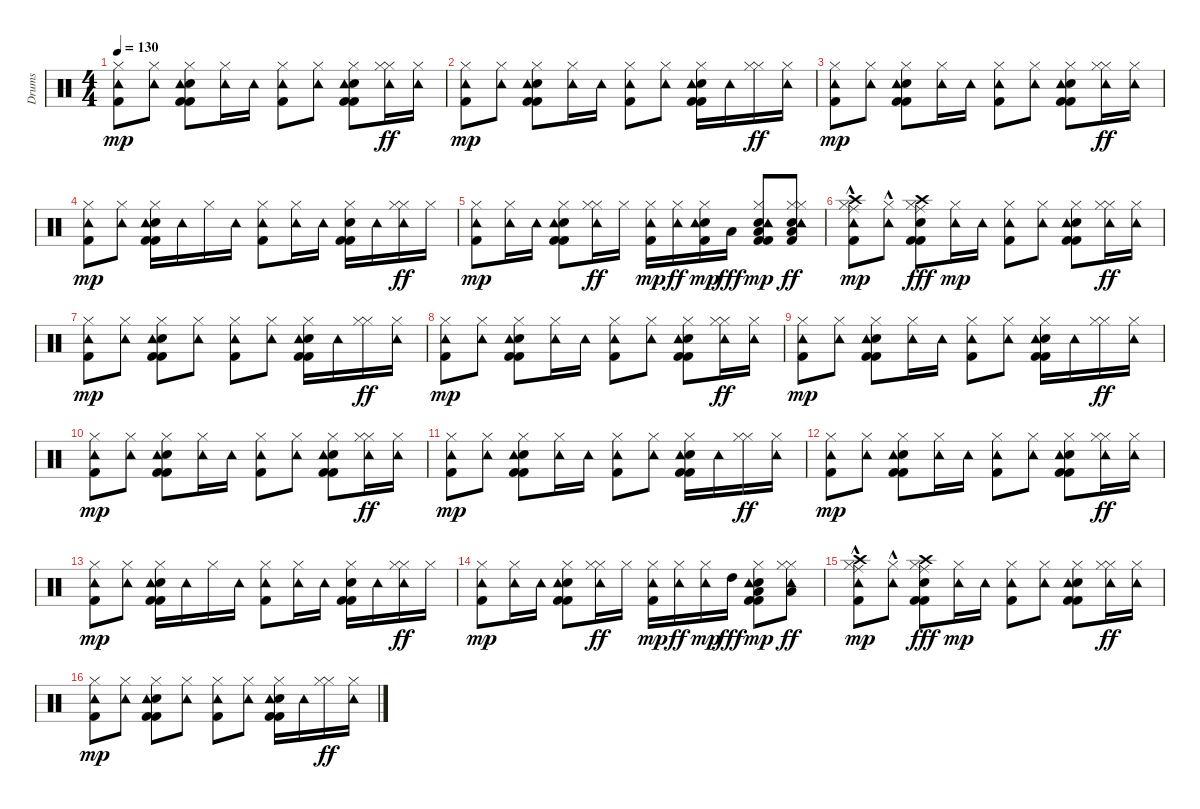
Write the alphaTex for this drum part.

\track ("Drums" "Drums") {instrument percussion}
\staff {score}
\articulation defaults
\ts (4 4)
\tempo 130
\clef neutral
\ks c
("Kick (hit) 2" "Hi-Hat (closed)" "Tambourine (hit)").8{dy mp} ("Hi-Hat (closed)" "Tambourine (hit)").8 ("Kick (hit) 2" "Snare (hit) 2" "Kick (hit) 2" "Hi-Hat (closed)" "Tambourine (hit)").8 ("Hi-Hat (closed)" "Tambourine (hit)").16 "Tambourine (hit)".16 ("Kick (hit) 2" "Hi-Hat (closed)" "Tambourine (hit)").8 ("Hi-Hat (closed)" "Tambourine (hit)").8 ("Kick (hit) 2" "Snare (hit) 2" "Kick (hit) 2" "Hi-Hat (closed)" "Tambourine (hit)").8 ("Hi-Hat (closed)" "Tambourine (hit)" "Hi-Hat (closed)").16{dy ff} ("Tambourine (hit)" "Hi-Hat (closed)").16 |
("Kick (hit) 2" "Hi-Hat (closed)" "Tambourine (hit)").8{dy mp} ("Hi-Hat (closed)" "Tambourine (hit)").8 ("Kick (hit) 2" "Snare (hit) 2" "Kick (hit) 2" "Hi-Hat (closed)" "Tambourine (hit)").8 ("Hi-Hat (closed)" "Tambourine (hit)").16 "Tambourine (hit)".16 ("Kick (hit) 2" "Hi-Hat (closed)" "Tambourine (hit)").8 ("Hi-Hat (closed)" "Tambourine (hit)").8 ("Kick (hit) 2" "Snare (hit) 2" "Kick (hit) 2" "Hi-Hat (closed)" "Tambourine (hit)").16 "Tambourine (hit)".16 ("Hi-Hat (closed)" "Hi-Hat (closed)").16{dy ff} ("Tambourine (hit)" "Hi-Hat (closed)").16 |
("Kick (hit) 2" "Hi-Hat (closed)" "Tambourine (hit)").8{dy mp} ("Hi-Hat (closed)" "Tambourine (hit)").8 ("Kick (hit) 2" "Snare (hit) 2" "Kick (hit) 2" "Hi-Hat (closed)" "Tambourine (hit)").8 ("Hi-Hat (closed)" "Tambourine (hit)").16 "Tambourine (hit)".16 ("Kick (hit) 2" "Hi-Hat (closed)" "Tambourine (hit)").8 ("Hi-Hat (closed)" "Tambourine (hit)").8 ("Kick (hit) 2" "Snare (hit) 2" "Kick (hit) 2" "Hi-Hat (closed)" "Tambourine (hit)").8 ("Hi-Hat (closed)" "Tambourine (hit)" "Hi-Hat (closed)").16{dy ff} ("Tambourine (hit)" "Hi-Hat (closed)").16 |
("Kick (hit) 2" "Hi-Hat (closed)" "Tambourine (hit)").8{dy mp} ("Hi-Hat (closed)" "Tambourine (hit)").8 ("Kick (hit) 2" "Kick (hit) 2" "Snare (hit) 2" "Hi-Hat (closed)" "Tambourine (hit)").16 "Tambourine (hit)".16 "Hi-Hat (closed)".16 "Tambourine (hit)".16 ("Kick (hit) 2" "Hi-Hat (closed)" "Tambourine (hit)").8 ("Hi-Hat (closed)" "Tambourine (hit)").16 "Tambourine (hit)".16 ("Kick (hit) 2" "Snare (hit) 2" "Kick (hit) 2" "Hi-Hat (closed)").16 "Tambourine (hit)".16 ("Hi-Hat (closed)" "Tambourine (hit)" "Hi-Hat (closed)").16{dy ff} "Hi-Hat (closed)".16 |
("Kick (hit) 2" "Hi-Hat (closed)" "Tambourine (hit)").8{dy mp} ("Hi-Hat (closed)" "Tambourine (hit)").16 "Tambourine (hit)".16 ("Kick (hit) 2" "Snare (hit) 2" "Kick (hit) 2" "Hi-Hat (closed)" "Tambourine (hit)").8 ("Hi-Hat (closed)" "Tambourine (hit)" "Hi-Hat (closed)").16{dy ff} "Hi-Hat (closed)".16 ("Kick (hit) 2" "Hi-Hat (closed)" "Tambourine (hit)").16{dy mp} ("Tambourine (hit)" "Hi-Hat (closed)").16{dy ff} ("Snare (hit) 2" "Kick (hit) 2" "Hi-Hat (closed)" "Tambourine (hit)").16{dy mp} "Low Floor Tom (hit)".16{dy fff} ("Kick (hit) 2" "Kick (hit) 2" "Snare (hit) 2" "Hi-Hat (closed)" "Low Tom (hit)" "Tambourine (hit)").8{dy mp} ("Kick (hit) 2" "Snare (hit) 2" "Hi-Hat (closed)" "Low Floor Tom (hit)" "Tambourine (hit)" "Hi-Hat (closed)").8{dy ff} |
("Kick (hit) 2" "Hi-Hat (closed)" "Ride (middle)"{hac} "Crash high (hit)"{hac} "Tambourine (hit)").8{dy mp} ("Hi-Hat (closed)" "Tambourine (hit)"{hac}).8 ("Kick (hit) 2" "Snare (hit) 2" "Kick (hit) 2" "Hi-Hat (closed)" "Ride (middle)" "Crash high (hit)").8{dy fff} ("Hi-Hat (closed)" "Tambourine (hit)").16{dy mp} "Tambourine (hit)".16 ("Kick (hit) 2" "Hi-Hat (closed)" "Tambourine (hit)").8 ("Hi-Hat (closed)" "Tambourine (hit)").8 ("Kick (hit) 2" "Snare (hit) 2" "Kick (hit) 2" "Hi-Hat (closed)" "Tambourine (hit)").8 ("Hi-Hat (closed)" "Tambourine (hit)" "Hi-Hat (closed)").16{dy ff} ("Tambourine (hit)" "Hi-Hat (closed)").16 |
("Kick (hit) 2" "Hi-Hat (closed)" "Tambourine (hit)").8{dy mp} ("Hi-Hat (closed)" "Tambourine (hit)").8 ("Kick (hit) 2" "Snare (hit) 2" "Kick (hit) 2" "Hi-Hat (closed)" "Tambourine (hit)").8 ("Hi-Hat (closed)" "Tambourine (hit)").8 ("Kick (hit) 2" "Hi-Hat (closed)" "Tambourine (hit)").8 ("Hi-Hat (closed)" "Tambourine (hit)").8 ("Kick (hit) 2" "Snare (hit) 2" "Kick (hit) 2" "Hi-Hat (closed)" "Tambourine (hit)").16 "Tambourine (hit)".16 ("Hi-Hat (closed)" "Hi-Hat (closed)").16{dy ff} ("Tambourine (hit)" "Hi-Hat (closed)").16 |
("Kick (hit) 2" "Hi-Hat (closed)" "Tambourine (hit)").8{dy mp} ("Hi-Hat (closed)" "Tambourine (hit)").8 ("Kick (hit) 2" "Snare (hit) 2" "Kick (hit) 2" "Hi-Hat (closed)" "Tambourine (hit)").8 ("Hi-Hat (closed)" "Tambourine (hit)").16 "Tambourine (hit)".16 ("Kick (hit) 2" "Hi-Hat (closed)" "Tambourine (hit)").8 ("Hi-Hat (closed)" "Tambourine (hit)").8 ("Kick (hit) 2" "Snare (hit) 2" "Kick (hit) 2" "Hi-Hat (closed)" "Tambourine (hit)").8 ("Hi-Hat (closed)" "Tambourine (hit)" "Hi-Hat (closed)").16{dy ff} ("Tambourine (hit)" "Hi-Hat (closed)").16 |
("Kick (hit) 2" "Hi-Hat (closed)" "Tambourine (hit)").8{dy mp} ("Hi-Hat (closed)" "Tambourine (hit)").8 ("Kick (hit) 2" "Snare (hit) 2" "Kick (hit) 2" "Hi-Hat (closed)" "Tambourine (hit)").8 ("Hi-Hat (closed)" "Tambourine (hit)").16 "Tambourine (hit)".16 ("Kick (hit) 2" "Hi-Hat (closed)" "Tambourine (hit)").8 ("Hi-Hat (closed)" "Tambourine (hit)").8 ("Kick (hit) 2" "Snare (hit) 2" "Kick (hit) 2" "Hi-Hat (closed)" "Tambourine (hit)").16 "Tambourine (hit)".16 ("Hi-Hat (closed)" "Hi-Hat (closed)").16{dy ff} ("Tambourine (hit)" "Hi-Hat (closed)").16 |
("Kick (hit) 2" "Hi-Hat (closed)" "Tambourine (hit)").8{dy mp} ("Hi-Hat (closed)" "Tambourine (hit)").8 ("Kick (hit) 2" "Snare (hit) 2" "Kick (hit) 2" "Hi-Hat (closed)" "Tambourine (hit)").8 ("Hi-Hat (closed)" "Tambourine (hit)").16 "Tambourine (hit)".16 ("Kick (hit) 2" "Hi-Hat (closed)" "Tambourine (hit)").8 ("Hi-Hat (closed)" "Tambourine (hit)").8 ("Kick (hit) 2" "Snare (hit) 2" "Kick (hit) 2" "Hi-Hat (closed)" "Tambourine (hit)").8 ("Hi-Hat (closed)" "Tambourine (hit)" "Hi-Hat (closed)").16{dy ff} ("Tambourine (hit)" "Hi-Hat (closed)").16 |
("Kick (hit) 2" "Hi-Hat (closed)" "Tambourine (hit)").8{dy mp} ("Hi-Hat (closed)" "Tambourine (hit)").8 ("Kick (hit) 2" "Snare (hit) 2" "Kick (hit) 2" "Hi-Hat (closed)" "Tambourine (hit)").8 ("Hi-Hat (closed)" "Tambourine (hit)").16 "Tambourine (hit)".16 ("Kick (hit) 2" "Hi-Hat (closed)" "Tambourine (hit)").8 ("Hi-Hat (closed)" "Tambourine (hit)").8 ("Kick (hit) 2" "Snare (hit) 2" "Kick (hit) 2" "Hi-Hat (closed)" "Tambourine (hit)").16 "Tambourine (hit)".16 ("Hi-Hat (closed)" "Hi-Hat (closed)").16{dy ff} ("Tambourine (hit)" "Hi-Hat (closed)").16 |
("Kick (hit) 2" "Hi-Hat (closed)" "Tambourine (hit)").8{dy mp} ("Hi-Hat (closed)" "Tambourine (hit)").8 ("Kick (hit) 2" "Kick (hit) 2" "Snare (hit) 2" "Hi-Hat (closed)" "Tambourine (hit)").8 ("Hi-Hat (closed)" "Tambourine (hit)").16 "Tambourine (hit)".16 ("Kick (hit) 2" "Hi-Hat (closed)" "Tambourine (hit)").8 ("Hi-Hat (closed)" "Tambourine (hit)").8 ("Kick (hit) 2" "Kick (hit) 2" "Snare (hit) 2" "Hi-Hat (closed)" "Tambourine (hit)").8 ("Hi-Hat (closed)" "Tambourine (hit)" "Hi-Hat (closed)").16{dy ff} ("Tambourine (hit)" "Hi-Hat (closed)").16 |
("Kick (hit) 2" "Hi-Hat (closed)" "Tambourine (hit)").8{dy mp} ("Hi-Hat (closed)" "Tambourine (hit)").8 ("Kick (hit) 2" "Kick (hit) 2" "Snare (hit) 2" "Hi-Hat (closed)" "Tambourine (hit)").16 "Tambourine (hit)".16 "Hi-Hat (closed)".16 "Tambourine (hit)".16 ("Kick (hit) 2" "Hi-Hat (closed)" "Tambourine (hit)").8 ("Hi-Hat (closed)" "Tambourine (hit)").16 "Tambourine (hit)".16 ("Kick (hit) 2" "Snare (hit) 2" "Kick (hit) 2" "Hi-Hat (closed)").16 "Tambourine (hit)".16 ("Hi-Hat (closed)" "Tambourine (hit)" "Hi-Hat (closed)").16{dy ff} "Hi-Hat (closed)".16 |
("Kick (hit) 2" "Hi-Hat (closed)" "Tambourine (hit)").8{dy mp} ("Hi-Hat (closed)" "Tambourine (hit)").16 "Tambourine (hit)".16 ("Kick (hit) 2" "Snare (hit) 2" "Kick (hit) 2" "Hi-Hat (closed)" "Tambourine (hit)").8 ("Hi-Hat (closed)" "Tambourine (hit)" "Hi-Hat (closed)").16{dy ff} "Hi-Hat (closed)".16 ("Kick (hit) 2" "Hi-Hat (closed)" "Tambourine (hit)").16{dy mp} ("Tambourine (hit)" "Hi-Hat (closed)").16{dy ff} ("Hi-Hat (closed)" "Tambourine (hit)").16{dy mp} "High Tom (hit)".16{dy fff} ("Kick (hit) 2" "Snare (hit) 2" "Kick (hit) 2" "Hi-Hat (closed)" "Low Tom (hit)" "Tambourine (hit)").8{dy mp} ("Hi-Hat (closed)" "Low Floor Tom (hit)" "Tambourine (hit)" "Hi-Hat (closed)").8{dy ff} |
("Kick (hit) 2" "Hi-Hat (closed)" "Ride (middle)"{hac} "Crash high (hit)"{hac} "Tambourine (hit)").8{dy mp} ("Hi-Hat (closed)" "Tambourine (hit)"{hac}).8 ("Kick (hit) 2" "Snare (hit) 2" "Kick (hit) 2" "Hi-Hat (closed)" "Ride (middle)" "Crash high (hit)").8{dy fff} ("Hi-Hat (closed)" "Tambourine (hit)").16{dy mp} "Tambourine (hit)".16 ("Kick (hit) 2" "Hi-Hat (closed)" "Tambourine (hit)").8 ("Hi-Hat (closed)" "Tambourine (hit)").8 ("Kick (hit) 2" "Snare (hit) 2" "Kick (hit) 2" "Hi-Hat (closed)" "Tambourine (hit)").8 ("Hi-Hat (closed)" "Tambourine (hit)" "Hi-Hat (closed)").16{dy ff} ("Tambourine (hit)" "Hi-Hat (closed)").16 |
("Kick (hit) 2" "Hi-Hat (closed)" "Tambourine (hit)").8{dy mp} ("Hi-Hat (closed)" "Tambourine (hit)").8 ("Kick (hit) 2" "Snare (hit) 2" "Kick (hit) 2" "Hi-Hat (closed)" "Tambourine (hit)").8 ("Hi-Hat (closed)" "Tambourine (hit)").8 ("Kick (hit) 2" "Hi-Hat (closed)" "Tambourine (hit)").8 ("Hi-Hat (closed)" "Tambourine (hit)").8 ("Kick (hit) 2" "Snare (hit) 2" "Kick (hit) 2" "Hi-Hat (closed)" "Tambourine (hit)").16 "Tambourine (hit)".16 ("Hi-Hat (closed)" "Hi-Hat (closed)").16{dy ff} ("Tambourine (hit)" "Hi-Hat (closed)").16
